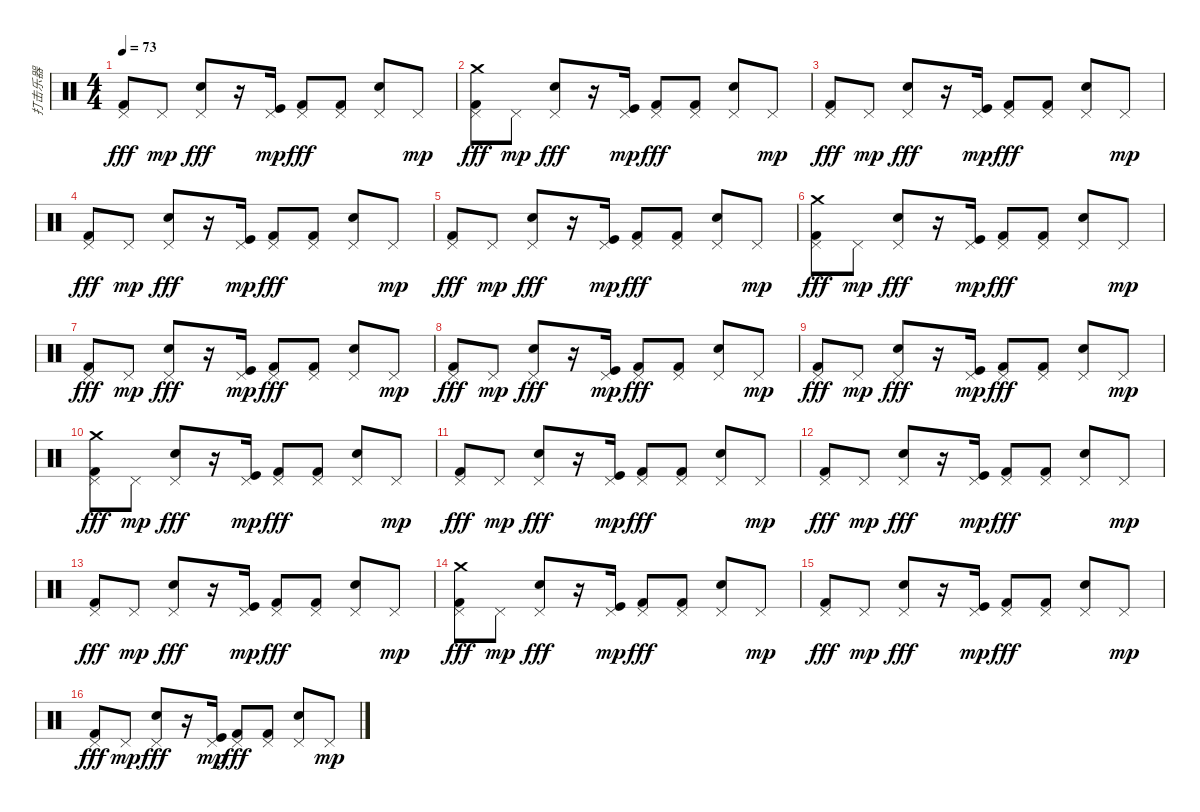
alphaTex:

\track ("打击乐器" "打击乐器") {instrument percussion}
\staff {score}
\articulation defaults
\ts (4 4)
\tempo 73
\clef neutral
\ks c
("Pedal Hi-Hat (hit)" "Kick (hit) 2").8{dy fff} "Pedal Hi-Hat (hit)".8{dy mp} ("Pedal Hi-Hat (hit)" "Electric Snare (hit)").8{dy fff} r.16 ("Pedal Hi-Hat (hit)" "Kick (hit)").16{dy mp} ("Pedal Hi-Hat (hit)" "Kick (hit) 2").8{dy fff} ("Pedal Hi-Hat (hit)" "Kick (hit) 2").8 ("Pedal Hi-Hat (hit)" "Electric Snare (hit)").8 "Pedal Hi-Hat (hit)".8{dy mp} |
("Pedal Hi-Hat (hit)" "Kick (hit) 2" "Crash medium (hit)").8{dy fff} "Pedal Hi-Hat (hit)".8{dy mp} ("Pedal Hi-Hat (hit)" "Electric Snare (hit)").8{dy fff} r.16 ("Pedal Hi-Hat (hit)" "Kick (hit)").16{dy mp} ("Pedal Hi-Hat (hit)" "Kick (hit) 2").8{dy fff} ("Pedal Hi-Hat (hit)" "Kick (hit) 2").8 ("Pedal Hi-Hat (hit)" "Electric Snare (hit)").8 "Pedal Hi-Hat (hit)".8{dy mp} |
("Pedal Hi-Hat (hit)" "Kick (hit) 2").8{dy fff} "Pedal Hi-Hat (hit)".8{dy mp} ("Pedal Hi-Hat (hit)" "Electric Snare (hit)").8{dy fff} r.16 ("Pedal Hi-Hat (hit)" "Kick (hit)").16{dy mp} ("Pedal Hi-Hat (hit)" "Kick (hit) 2").8{dy fff} ("Pedal Hi-Hat (hit)" "Kick (hit) 2").8 ("Pedal Hi-Hat (hit)" "Electric Snare (hit)").8 "Pedal Hi-Hat (hit)".8{dy mp} |
("Pedal Hi-Hat (hit)" "Kick (hit) 2").8{dy fff} "Pedal Hi-Hat (hit)".8{dy mp} ("Pedal Hi-Hat (hit)" "Electric Snare (hit)").8{dy fff} r.16 ("Pedal Hi-Hat (hit)" "Kick (hit)").16{dy mp} ("Pedal Hi-Hat (hit)" "Kick (hit) 2").8{dy fff} ("Pedal Hi-Hat (hit)" "Kick (hit) 2").8 ("Pedal Hi-Hat (hit)" "Electric Snare (hit)").8 "Pedal Hi-Hat (hit)".8{dy mp} |
("Pedal Hi-Hat (hit)" "Kick (hit) 2").8{dy fff} "Pedal Hi-Hat (hit)".8{dy mp} ("Pedal Hi-Hat (hit)" "Electric Snare (hit)").8{dy fff} r.16 ("Pedal Hi-Hat (hit)" "Kick (hit)").16{dy mp} ("Pedal Hi-Hat (hit)" "Kick (hit) 2").8{dy fff} ("Pedal Hi-Hat (hit)" "Kick (hit) 2").8 ("Pedal Hi-Hat (hit)" "Electric Snare (hit)").8 "Pedal Hi-Hat (hit)".8{dy mp} |
("Pedal Hi-Hat (hit)" "Kick (hit) 2" "Crash medium (hit)").8{dy fff} "Pedal Hi-Hat (hit)".8{dy mp} ("Pedal Hi-Hat (hit)" "Electric Snare (hit)").8{dy fff} r.16 ("Pedal Hi-Hat (hit)" "Kick (hit)").16{dy mp} ("Pedal Hi-Hat (hit)" "Kick (hit) 2").8{dy fff} ("Pedal Hi-Hat (hit)" "Kick (hit) 2").8 ("Pedal Hi-Hat (hit)" "Electric Snare (hit)").8 "Pedal Hi-Hat (hit)".8{dy mp} |
("Pedal Hi-Hat (hit)" "Kick (hit) 2").8{dy fff} "Pedal Hi-Hat (hit)".8{dy mp} ("Pedal Hi-Hat (hit)" "Electric Snare (hit)").8{dy fff} r.16 ("Pedal Hi-Hat (hit)" "Kick (hit)").16{dy mp} ("Pedal Hi-Hat (hit)" "Kick (hit) 2").8{dy fff} ("Pedal Hi-Hat (hit)" "Kick (hit) 2").8 ("Pedal Hi-Hat (hit)" "Electric Snare (hit)").8 "Pedal Hi-Hat (hit)".8{dy mp} |
("Pedal Hi-Hat (hit)" "Kick (hit) 2").8{dy fff} "Pedal Hi-Hat (hit)".8{dy mp} ("Pedal Hi-Hat (hit)" "Electric Snare (hit)").8{dy fff} r.16 ("Pedal Hi-Hat (hit)" "Kick (hit)").16{dy mp} ("Pedal Hi-Hat (hit)" "Kick (hit) 2").8{dy fff} ("Pedal Hi-Hat (hit)" "Kick (hit) 2").8 ("Pedal Hi-Hat (hit)" "Electric Snare (hit)").8 "Pedal Hi-Hat (hit)".8{dy mp} |
("Pedal Hi-Hat (hit)" "Kick (hit) 2").8{dy fff} "Pedal Hi-Hat (hit)".8{dy mp} ("Pedal Hi-Hat (hit)" "Electric Snare (hit)").8{dy fff} r.16 ("Pedal Hi-Hat (hit)" "Kick (hit)").16{dy mp} ("Pedal Hi-Hat (hit)" "Kick (hit) 2").8{dy fff} ("Pedal Hi-Hat (hit)" "Kick (hit) 2").8 ("Pedal Hi-Hat (hit)" "Electric Snare (hit)").8 "Pedal Hi-Hat (hit)".8{dy mp} |
("Pedal Hi-Hat (hit)" "Kick (hit) 2" "Crash medium (hit)").8{dy fff} "Pedal Hi-Hat (hit)".8{dy mp} ("Pedal Hi-Hat (hit)" "Electric Snare (hit)").8{dy fff} r.16 ("Pedal Hi-Hat (hit)" "Kick (hit)").16{dy mp} ("Pedal Hi-Hat (hit)" "Kick (hit) 2").8{dy fff} ("Pedal Hi-Hat (hit)" "Kick (hit) 2").8 ("Pedal Hi-Hat (hit)" "Electric Snare (hit)").8 "Pedal Hi-Hat (hit)".8{dy mp} |
("Pedal Hi-Hat (hit)" "Kick (hit) 2").8{dy fff} "Pedal Hi-Hat (hit)".8{dy mp} ("Pedal Hi-Hat (hit)" "Electric Snare (hit)").8{dy fff} r.16 ("Pedal Hi-Hat (hit)" "Kick (hit)").16{dy mp} ("Pedal Hi-Hat (hit)" "Kick (hit) 2").8{dy fff} ("Pedal Hi-Hat (hit)" "Kick (hit) 2").8 ("Pedal Hi-Hat (hit)" "Electric Snare (hit)").8 "Pedal Hi-Hat (hit)".8{dy mp} |
("Pedal Hi-Hat (hit)" "Kick (hit) 2").8{dy fff} "Pedal Hi-Hat (hit)".8{dy mp} ("Pedal Hi-Hat (hit)" "Electric Snare (hit)").8{dy fff} r.16 ("Pedal Hi-Hat (hit)" "Kick (hit)").16{dy mp} ("Pedal Hi-Hat (hit)" "Kick (hit) 2").8{dy fff} ("Pedal Hi-Hat (hit)" "Kick (hit) 2").8 ("Pedal Hi-Hat (hit)" "Electric Snare (hit)").8 "Pedal Hi-Hat (hit)".8{dy mp} |
("Pedal Hi-Hat (hit)" "Kick (hit) 2").8{dy fff} "Pedal Hi-Hat (hit)".8{dy mp} ("Pedal Hi-Hat (hit)" "Electric Snare (hit)").8{dy fff} r.16 ("Pedal Hi-Hat (hit)" "Kick (hit)").16{dy mp} ("Pedal Hi-Hat (hit)" "Kick (hit) 2").8{dy fff} ("Pedal Hi-Hat (hit)" "Kick (hit) 2").8 ("Pedal Hi-Hat (hit)" "Electric Snare (hit)").8 "Pedal Hi-Hat (hit)".8{dy mp} |
("Pedal Hi-Hat (hit)" "Kick (hit) 2" "Crash medium (hit)").8{dy fff} "Pedal Hi-Hat (hit)".8{dy mp} ("Pedal Hi-Hat (hit)" "Electric Snare (hit)").8{dy fff} r.16 ("Pedal Hi-Hat (hit)" "Kick (hit)").16{dy mp} ("Pedal Hi-Hat (hit)" "Kick (hit) 2").8{dy fff} ("Pedal Hi-Hat (hit)" "Kick (hit) 2").8 ("Pedal Hi-Hat (hit)" "Electric Snare (hit)").8 "Pedal Hi-Hat (hit)".8{dy mp} |
("Pedal Hi-Hat (hit)" "Kick (hit) 2").8{dy fff} "Pedal Hi-Hat (hit)".8{dy mp} ("Pedal Hi-Hat (hit)" "Electric Snare (hit)").8{dy fff} r.16 ("Pedal Hi-Hat (hit)" "Kick (hit)").16{dy mp} ("Pedal Hi-Hat (hit)" "Kick (hit) 2").8{dy fff} ("Pedal Hi-Hat (hit)" "Kick (hit) 2").8 ("Pedal Hi-Hat (hit)" "Electric Snare (hit)").8 "Pedal Hi-Hat (hit)".8{dy mp} |
("Pedal Hi-Hat (hit)" "Kick (hit) 2").8{dy fff} "Pedal Hi-Hat (hit)".8{dy mp} ("Pedal Hi-Hat (hit)" "Electric Snare (hit)").8{dy fff} r.16 ("Pedal Hi-Hat (hit)" "Kick (hit)").16{dy mp} ("Pedal Hi-Hat (hit)" "Kick (hit) 2").8{dy fff} ("Pedal Hi-Hat (hit)" "Kick (hit) 2").8 ("Pedal Hi-Hat (hit)" "Electric Snare (hit)").8 "Pedal Hi-Hat (hit)".8{dy mp}
